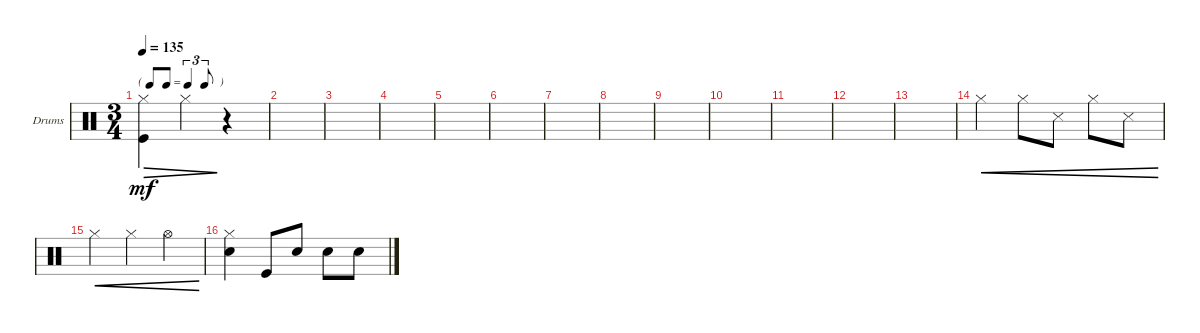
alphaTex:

\defaultSystemsLayout 4
\bracketExtendMode groupsimilarinstruments
\firstSystemTrackNameOrientation horizontal
\otherSystemsTrackNameOrientation horizontal
\track ("Drums" "Drums") {instrument percussion}
\staff {score}
\articulation defaults
\ts (3 4)
\tf triplet8th
\tempo 135
\clef neutral
\scale
0.333333
\ks c
("Kick (hit)" "Hi-Hat (closed)").4{dec dy mf} "Hi-Hat (closed)".4{dec} r.4 |
\scale
0.333333 |
\scale
0.333333 |
\scale
0.333333 |
\scale
0.333333 |
\scale
0.333333 |
\scale
0.333333 |
\scale
0.333333 |
|
|
|
|
|
"Hi-Hat (closed)".4{cre} "Hi-Hat (closed)".8{cre} "Snare (side stick) 3".8{cre} "Hi-Hat (closed)".8{cre} "Snare (side stick) 3".8{cre} |
"Hi-Hat (closed)".4{cre} "Hi-Hat (closed)".4{cre} "Hi-Hat (open)".4{cre} |
("Hi-Hat (closed)" "Snare (hit) 2").4 "Kick (hit)".8 "Snare (hit) 2".8 "Snare (hit) 2".8 "Snare (hit) 2".8
